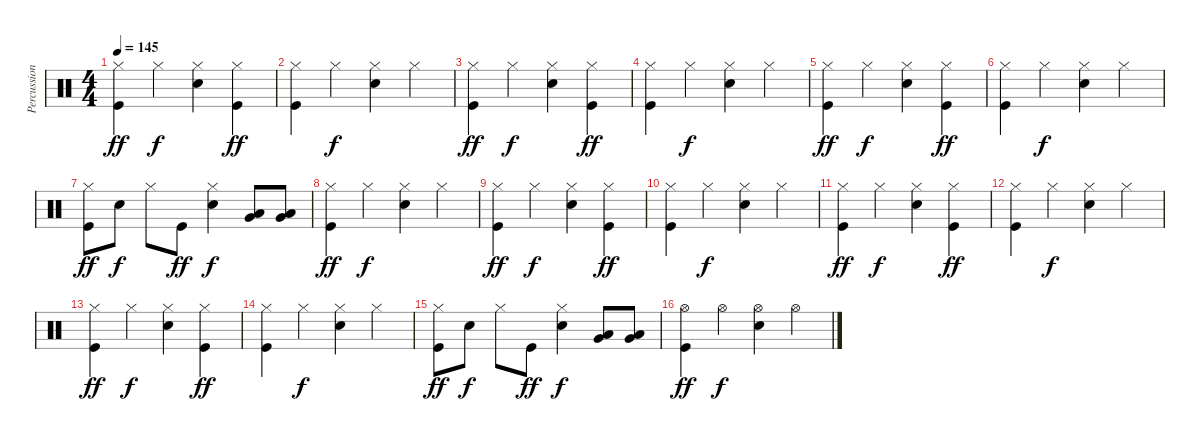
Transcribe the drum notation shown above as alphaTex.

\track ("Percussions" "Percussion") {instrument percussion}
\staff {score}
\articulation defaults
\ts (4 4)
\tempo 145
\clef neutral
\ks c
("Hi-Hat (closed)" "Kick (hit)").4{dy ff} "Hi-Hat (closed)".4{dy f} ("Hi-Hat (closed)" "Snare (hit) 2").4 ("Hi-Hat (closed)" "Kick (hit)").4{dy ff} |
("Hi-Hat (closed)" "Kick (hit)").4 "Hi-Hat (closed)".4{dy f} ("Hi-Hat (closed)" "Snare (hit) 2").4 "Hi-Hat (closed)".4 |
("Hi-Hat (closed)" "Kick (hit)").4{dy ff} "Hi-Hat (closed)".4{dy f} ("Hi-Hat (closed)" "Snare (hit) 2").4 ("Hi-Hat (closed)" "Kick (hit)").4{dy ff} |
("Hi-Hat (closed)" "Kick (hit)").4 "Hi-Hat (closed)".4{dy f} ("Hi-Hat (closed)" "Snare (hit) 2").4 "Hi-Hat (closed)".4 |
("Hi-Hat (closed)" "Kick (hit)").4{dy ff} "Hi-Hat (closed)".4{dy f} ("Hi-Hat (closed)" "Snare (hit) 2").4 ("Hi-Hat (closed)" "Kick (hit)").4{dy ff} |
("Hi-Hat (closed)" "Kick (hit)").4 "Hi-Hat (closed)".4{dy f} ("Hi-Hat (closed)" "Snare (hit) 2").4 "Hi-Hat (closed)".4 |
("Hi-Hat (closed)" "Kick (hit)").8{dy ff} "Snare (hit) 2".8{dy f} "Hi-Hat (closed)".8 "Kick (hit)".8{dy ff} ("Hi-Hat (closed)" "Snare (hit) 2").4{dy f} ("Very Low Tom (hit)" "Low Tom (hit)").8 ("Very Low Tom (hit)" "Low Tom (hit)").8 |
("Hi-Hat (closed)" "Kick (hit)").4{dy ff} "Hi-Hat (closed)".4{dy f} ("Hi-Hat (closed)" "Snare (hit) 2").4 "Hi-Hat (closed)".4 |
("Hi-Hat (closed)" "Kick (hit)").4{dy ff} "Hi-Hat (closed)".4{dy f} ("Hi-Hat (closed)" "Snare (hit) 2").4 ("Hi-Hat (closed)" "Kick (hit)").4{dy ff} |
("Hi-Hat (closed)" "Kick (hit)").4 "Hi-Hat (closed)".4{dy f} ("Hi-Hat (closed)" "Snare (hit) 2").4 "Hi-Hat (closed)".4 |
("Hi-Hat (closed)" "Kick (hit)").4{dy ff} "Hi-Hat (closed)".4{dy f} ("Hi-Hat (closed)" "Snare (hit) 2").4 ("Hi-Hat (closed)" "Kick (hit)").4{dy ff} |
("Hi-Hat (closed)" "Kick (hit)").4 "Hi-Hat (closed)".4{dy f} ("Hi-Hat (closed)" "Snare (hit) 2").4 "Hi-Hat (closed)".4 |
("Hi-Hat (closed)" "Kick (hit)").4{dy ff} "Hi-Hat (closed)".4{dy f} ("Hi-Hat (closed)" "Snare (hit) 2").4 ("Hi-Hat (closed)" "Kick (hit)").4{dy ff} |
("Hi-Hat (closed)" "Kick (hit)").4 "Hi-Hat (closed)".4{dy f} ("Hi-Hat (closed)" "Snare (hit) 2").4 "Hi-Hat (closed)".4 |
("Hi-Hat (closed)" "Kick (hit)").8{dy ff} "Snare (hit) 2".8{dy f} "Hi-Hat (closed)".8 "Kick (hit)".8{dy ff} ("Hi-Hat (closed)" "Snare (hit) 2").4{dy f} ("Very Low Tom (hit)" "Low Tom (hit)").8 ("Very Low Tom (hit)" "Low Tom (hit)").8 |
("Hi-Hat (open)" "Kick (hit)").4{dy ff} "Hi-Hat (open)".4{dy f} ("Hi-Hat (open)" "Snare (hit) 2").4 "Hi-Hat (open)".4
